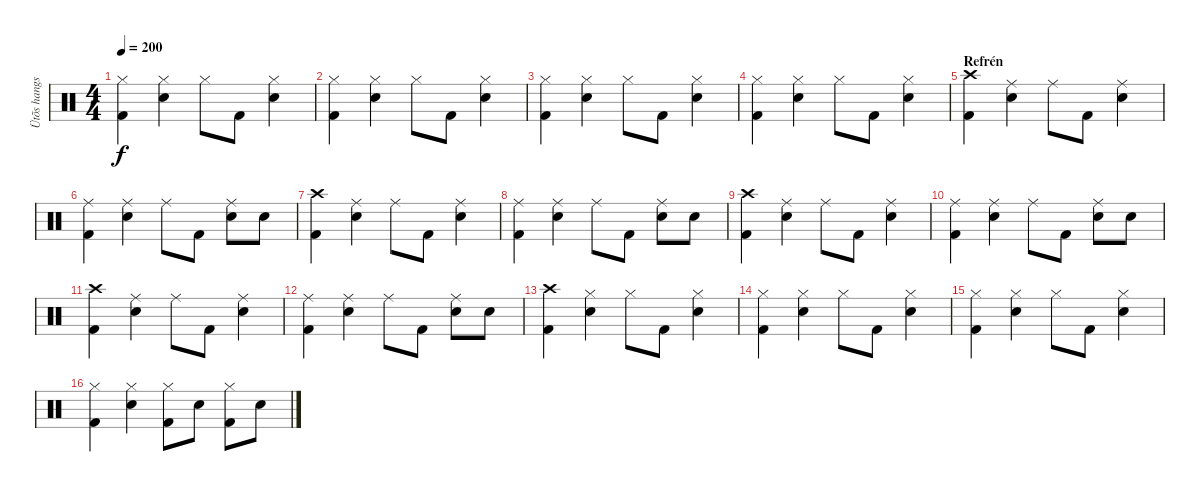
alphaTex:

\track ("Ütõs hangszer" "Ütõs hangs") {instrument percussion}
\staff {score}
\articulation defaults
\ts (4 4)
\tempo 200
\clef neutral
\ks c
("Hi-Hat (closed)" "Kick (hit) 2").4{dy f} ("Hi-Hat (closed)" "Snare (hit) 2").4 "Hi-Hat (closed)".8 "Kick (hit) 2".8 ("Hi-Hat (closed)" "Snare (hit) 2").4 |
("Hi-Hat (closed)" "Kick (hit) 2").4 ("Hi-Hat (closed)" "Snare (hit) 2").4 "Hi-Hat (closed)".8 "Kick (hit) 2".8 ("Hi-Hat (closed)" "Snare (hit) 2").4 |
("Hi-Hat (closed)" "Kick (hit) 2").4 ("Hi-Hat (closed)" "Snare (hit) 2").4 "Hi-Hat (closed)".8 "Kick (hit) 2".8 ("Hi-Hat (closed)" "Snare (hit) 2").4 |
("Hi-Hat (closed)" "Kick (hit) 2").4 ("Hi-Hat (closed)" "Snare (hit) 2").4 "Hi-Hat (closed)".8 "Kick (hit) 2".8 ("Hi-Hat (closed)" "Snare (hit) 2").4 |
\section ("" "Refrén")
("Crash high (hit)" "Kick (hit) 2").4 ("Ride (middle)" "Snare (hit) 2").4 "Ride (middle)".8 "Kick (hit) 2".8 ("Ride (middle)" "Snare (hit) 2").4 |
("Ride (middle)" "Kick (hit) 2").4 ("Ride (middle)" "Snare (hit) 2").4 "Ride (middle)".8 "Kick (hit) 2".8 ("Ride (middle)" "Snare (hit) 2").8 "Snare (hit) 2".8 |
("Crash high (hit)" "Kick (hit) 2").4 ("Ride (middle)" "Snare (hit) 2").4 "Ride (middle)".8 "Kick (hit) 2".8 ("Ride (middle)" "Snare (hit) 2").4 |
("Ride (middle)" "Kick (hit) 2").4 ("Ride (middle)" "Snare (hit) 2").4 "Ride (middle)".8 "Kick (hit) 2".8 ("Ride (middle)" "Snare (hit) 2").8 "Snare (hit) 2".8 |
("Crash high (hit)" "Kick (hit) 2").4 ("Ride (middle)" "Snare (hit) 2").4 "Ride (middle)".8 "Kick (hit) 2".8 ("Ride (middle)" "Snare (hit) 2").4 |
("Ride (middle)" "Kick (hit) 2").4 ("Ride (middle)" "Snare (hit) 2").4 "Ride (middle)".8 "Kick (hit) 2".8 ("Ride (middle)" "Snare (hit) 2").8 "Snare (hit) 2".8 |
("Crash high (hit)" "Kick (hit) 2").4 ("Ride (middle)" "Snare (hit) 2").4 "Ride (middle)".8 "Kick (hit) 2".8 ("Ride (middle)" "Snare (hit) 2").4 |
("Ride (middle)" "Kick (hit) 2").4 ("Ride (middle)" "Snare (hit) 2").4 "Ride (middle)".8 "Kick (hit) 2".8 ("Ride (middle)" "Snare (hit) 2").8 "Snare (hit) 2".8 |
("Crash high (hit)" "Kick (hit) 2").4 ("Hi-Hat (closed)" "Snare (hit) 2").4 "Hi-Hat (closed)".8 "Kick (hit) 2".8 ("Hi-Hat (closed)" "Snare (hit) 2").4 |
("Hi-Hat (closed)" "Kick (hit) 2").4 ("Hi-Hat (closed)" "Snare (hit) 2").4 "Hi-Hat (closed)".8 "Kick (hit) 2".8 ("Hi-Hat (closed)" "Snare (hit) 2").4 |
("Hi-Hat (closed)" "Kick (hit) 2").4 ("Hi-Hat (closed)" "Snare (hit) 2").4 "Hi-Hat (closed)".8 "Kick (hit) 2".8 ("Hi-Hat (closed)" "Snare (hit) 2").4 |
("Hi-Hat (closed)" "Kick (hit) 2").4 ("Hi-Hat (closed)" "Snare (hit) 2").4 ("Hi-Hat (closed)" "Kick (hit) 2").8 "Snare (hit) 2".8 ("Hi-Hat (closed)" "Kick (hit) 2").8 "Snare (hit) 2".8
